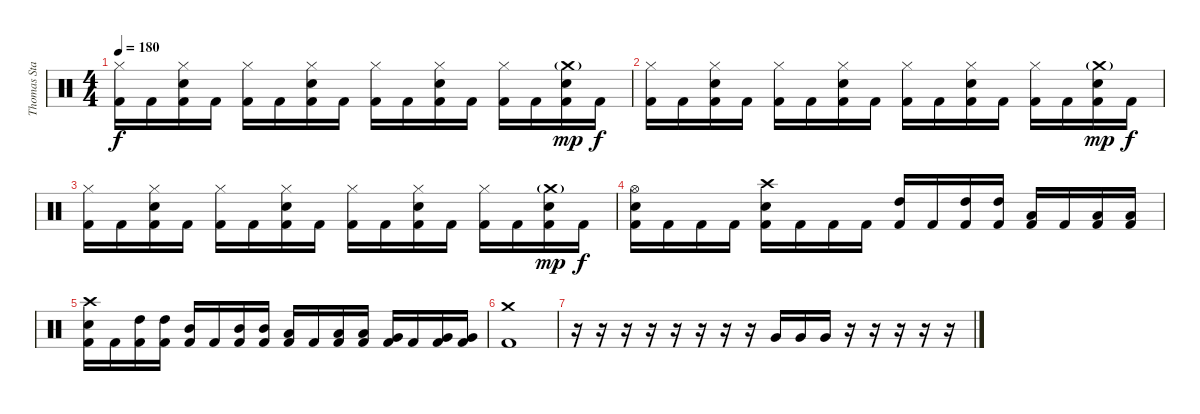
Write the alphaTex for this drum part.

\track ("Thomas Stauch" "Thomas Sta") {instrument percussion}
\staff {score}
\articulation defaults
\ts (4 4)
\tempo 180
\clef neutral
\ks c
("Hi-Hat (closed)" "Kick (hit) 2").16{dy f} "Kick (hit) 2".16 ("Hi-Hat (closed)" "Electric Snare (hit)" "Kick (hit) 2").16 "Kick (hit) 2".16 ("Hi-Hat (closed)" "Kick (hit) 2").16 "Kick (hit) 2".16 ("Hi-Hat (closed)" "Electric Snare (hit)" "Kick (hit) 2").16 "Kick (hit) 2".16 ("Hi-Hat (closed)" "Kick (hit) 2").16 "Kick (hit) 2".16 ("Hi-Hat (closed)" "Electric Snare (hit)" "Kick (hit) 2").16 "Kick (hit) 2".16 ("Hi-Hat (closed)" "Kick (hit) 2").16 "Kick (hit) 2".16 ("Crash medium (hit)"{g} "Electric Snare (hit)" "Kick (hit) 2").16{dy mp} "Kick (hit) 2".16{dy f} |
("Hi-Hat (closed)" "Kick (hit) 2").16 "Kick (hit) 2".16 ("Hi-Hat (closed)" "Electric Snare (hit)" "Kick (hit) 2").16 "Kick (hit) 2".16 ("Hi-Hat (closed)" "Kick (hit) 2").16 "Kick (hit) 2".16 ("Hi-Hat (closed)" "Electric Snare (hit)" "Kick (hit) 2").16 "Kick (hit) 2".16 ("Hi-Hat (closed)" "Kick (hit) 2").16 "Kick (hit) 2".16 ("Hi-Hat (closed)" "Electric Snare (hit)" "Kick (hit) 2").16 "Kick (hit) 2".16 ("Hi-Hat (closed)" "Kick (hit) 2").16 "Kick (hit) 2".16 ("Crash medium (hit)"{g} "Electric Snare (hit)" "Kick (hit) 2").16{dy mp} "Kick (hit) 2".16{dy f} |
("Hi-Hat (closed)" "Kick (hit) 2").16 "Kick (hit) 2".16 ("Hi-Hat (closed)" "Electric Snare (hit)" "Kick (hit) 2").16 "Kick (hit) 2".16 ("Hi-Hat (closed)" "Kick (hit) 2").16 "Kick (hit) 2".16 ("Hi-Hat (closed)" "Electric Snare (hit)" "Kick (hit) 2").16 "Kick (hit) 2".16 ("Hi-Hat (closed)" "Kick (hit) 2").16 "Kick (hit) 2".16 ("Hi-Hat (closed)" "Electric Snare (hit)" "Kick (hit) 2").16 "Kick (hit) 2".16 ("Hi-Hat (closed)" "Kick (hit) 2").16 "Kick (hit) 2".16 ("Crash medium (hit)"{g} "Electric Snare (hit)" "Kick (hit) 2").16{dy mp} "Kick (hit) 2".16{dy f} |
("Hi-Hat (open)" "Electric Snare (hit)" "Kick (hit) 2").16 "Kick (hit) 2".16 "Kick (hit) 2".16 "Kick (hit) 2".16 ("Crash high (hit)" "Electric Snare (hit)" "Kick (hit) 2").16 "Kick (hit) 2".16 "Kick (hit) 2".16 "Kick (hit) 2".16 ("High Tom (hit)" "Kick (hit) 2").16 "Kick (hit) 2".16 ("High Tom (hit)" "Kick (hit) 2").16 ("High Tom (hit)" "Kick (hit) 2").16 ("Low Tom (hit)" "Kick (hit) 2").16 "Kick (hit) 2".16 ("Low Tom (hit)" "Kick (hit) 2").16 ("Low Tom (hit)" "Kick (hit) 2").16 |
("Crash high (hit)" "Electric Snare (hit)" "Kick (hit) 2").16 "Kick (hit) 2".16 ("High Tom (hit)" "Kick (hit) 2").16 ("High Tom (hit)" "Kick (hit) 2").16 ("Mid Tom (hit)" "Kick (hit) 2").16 "Kick (hit) 2".16 ("Mid Tom (hit)" "Kick (hit) 2").16 ("Mid Tom (hit)" "Kick (hit) 2").16 ("Low Tom (hit)" "Kick (hit) 2").16 "Kick (hit) 2".16 ("Low Tom (hit)" "Kick (hit) 2").16 ("Low Tom (hit)" "Kick (hit) 2").16 ("Very Low Tom (hit)" "Kick (hit) 2").16 "Kick (hit) 2".16 ("Very Low Tom (hit)" "Kick (hit) 2").16 ("Very Low Tom (hit)" "Kick (hit) 2").16 |
("Crash medium (hit)" "Kick (hit) 2").1 |
r.16 r.16 r.16 r.16 r.16 r.16 r.16 r.16 "Very Low Tom (hit)".16 "Very Low Tom (hit)".16 "Very Low Tom (hit)".16 r.16 r.16 r.16 r.16 r.16
